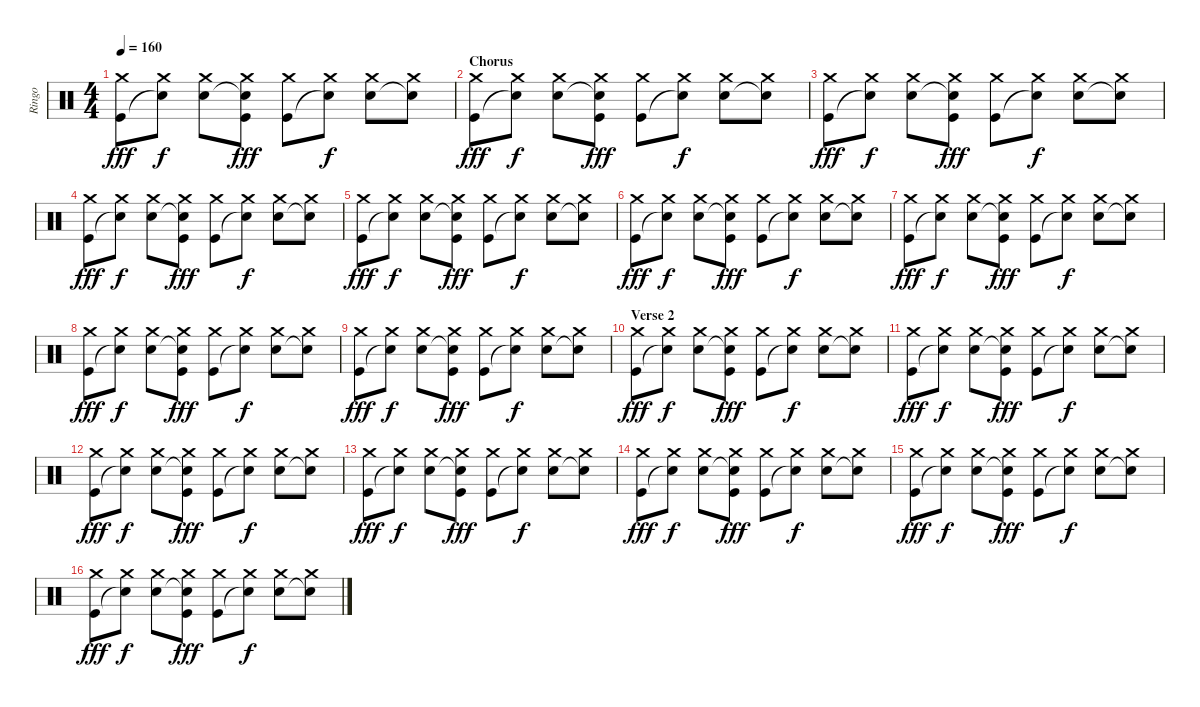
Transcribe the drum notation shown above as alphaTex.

\track ("Ringo" "Ringo") {instrument percussion}
\staff {score}
\articulation defaults
\ts (4 4)
\tempo 160
\clef neutral
\ks c
("Crash medium (hit)" "Kick (hit)").8{dy fff} ("Crash medium (hit)" "Snare (hit)"{t}).8{dy f} ("Crash medium (hit)" "Snare (hit) 2").8 ("Crash medium (hit)" "Snare (hit)"{t} "Kick (hit)").8{dy fff} ("Crash medium (hit)" "Kick (hit)").8 ("Crash medium (hit)" "Snare (hit)"{t}).8{dy f} ("Crash medium (hit)" "Snare (hit) 2").8 ("Crash medium (hit)" "Snare (hit)"{t}).8 |
\section ("" "Chorus ")
("Crash medium (hit)" "Kick (hit)").8{dy fff} ("Crash medium (hit)" "Snare (hit)"{t}).8{dy f} ("Crash medium (hit)" "Snare (hit) 2").8 ("Crash medium (hit)" "Snare (hit)"{t} "Kick (hit)").8{dy fff} ("Crash medium (hit)" "Kick (hit)").8 ("Crash medium (hit)" "Snare (hit)"{t}).8{dy f} ("Crash medium (hit)" "Snare (hit) 2").8 ("Crash medium (hit)" "Snare (hit)"{t}).8 |
("Crash medium (hit)" "Kick (hit)").8{dy fff} ("Crash medium (hit)" "Snare (hit)"{t}).8{dy f} ("Crash medium (hit)" "Snare (hit) 2").8 ("Crash medium (hit)" "Snare (hit)"{t} "Kick (hit)").8{dy fff} ("Crash medium (hit)" "Kick (hit)").8 ("Crash medium (hit)" "Snare (hit)"{t}).8{dy f} ("Crash medium (hit)" "Snare (hit) 2").8 ("Crash medium (hit)" "Snare (hit)"{t}).8 |
("Crash medium (hit)" "Kick (hit)").8{dy fff} ("Crash medium (hit)" "Snare (hit)"{t}).8{dy f} ("Crash medium (hit)" "Snare (hit) 2").8 ("Crash medium (hit)" "Snare (hit)"{t} "Kick (hit)").8{dy fff} ("Crash medium (hit)" "Kick (hit)").8 ("Crash medium (hit)" "Snare (hit)"{t}).8{dy f} ("Crash medium (hit)" "Snare (hit) 2").8 ("Crash medium (hit)" "Snare (hit)"{t}).8 |
("Crash medium (hit)" "Kick (hit)").8{dy fff} ("Crash medium (hit)" "Snare (hit)"{t}).8{dy f} ("Crash medium (hit)" "Snare (hit) 2").8 ("Crash medium (hit)" "Snare (hit)"{t} "Kick (hit)").8{dy fff} ("Crash medium (hit)" "Kick (hit)").8 ("Crash medium (hit)" "Snare (hit)"{t}).8{dy f} ("Crash medium (hit)" "Snare (hit) 2").8 ("Crash medium (hit)" "Snare (hit)"{t}).8 |
("Crash medium (hit)" "Kick (hit)").8{dy fff} ("Crash medium (hit)" "Snare (hit)"{t}).8{dy f} ("Crash medium (hit)" "Snare (hit) 2").8 ("Crash medium (hit)" "Snare (hit)"{t} "Kick (hit)").8{dy fff} ("Crash medium (hit)" "Kick (hit)").8 ("Crash medium (hit)" "Snare (hit)"{t}).8{dy f} ("Crash medium (hit)" "Snare (hit) 2").8 ("Crash medium (hit)" "Snare (hit)"{t}).8 |
("Crash medium (hit)" "Kick (hit)").8{dy fff} ("Crash medium (hit)" "Snare (hit)"{t}).8{dy f} ("Crash medium (hit)" "Snare (hit) 2").8 ("Crash medium (hit)" "Snare (hit)"{t} "Kick (hit)").8{dy fff} ("Crash medium (hit)" "Kick (hit)").8 ("Crash medium (hit)" "Snare (hit)"{t}).8{dy f} ("Crash medium (hit)" "Snare (hit) 2").8 ("Crash medium (hit)" "Snare (hit)"{t}).8 |
("Crash medium (hit)" "Kick (hit)").8{dy fff} ("Crash medium (hit)" "Snare (hit)"{t}).8{dy f} ("Crash medium (hit)" "Snare (hit) 2").8 ("Crash medium (hit)" "Snare (hit)"{t} "Kick (hit)").8{dy fff} ("Crash medium (hit)" "Kick (hit)").8 ("Crash medium (hit)" "Snare (hit)"{t}).8{dy f} ("Crash medium (hit)" "Snare (hit) 2").8 ("Crash medium (hit)" "Snare (hit)"{t}).8 |
("Crash medium (hit)" "Kick (hit)").8{dy fff} ("Crash medium (hit)" "Snare (hit)"{t}).8{dy f} ("Crash medium (hit)" "Snare (hit) 2").8 ("Crash medium (hit)" "Snare (hit)"{t} "Kick (hit)").8{dy fff} ("Crash medium (hit)" "Kick (hit)").8 ("Crash medium (hit)" "Snare (hit)"{t}).8{dy f} ("Crash medium (hit)" "Snare (hit) 2").8 ("Crash medium (hit)" "Snare (hit)"{t}).8 |
\section ("" "Verse 2")
("Crash medium (hit)" "Kick (hit)").8{dy fff} ("Crash medium (hit)" "Snare (hit)"{t}).8{dy f} ("Crash medium (hit)" "Snare (hit) 2").8 ("Crash medium (hit)" "Snare (hit)"{t} "Kick (hit)").8{dy fff} ("Crash medium (hit)" "Kick (hit)").8 ("Crash medium (hit)" "Snare (hit)"{t}).8{dy f} ("Crash medium (hit)" "Snare (hit) 2").8 ("Crash medium (hit)" "Snare (hit)"{t}).8 |
("Crash medium (hit)" "Kick (hit)").8{dy fff} ("Crash medium (hit)" "Snare (hit)"{t}).8{dy f} ("Crash medium (hit)" "Snare (hit) 2").8 ("Crash medium (hit)" "Snare (hit)"{t} "Kick (hit)").8{dy fff} ("Crash medium (hit)" "Kick (hit)").8 ("Crash medium (hit)" "Snare (hit)"{t}).8{dy f} ("Crash medium (hit)" "Snare (hit) 2").8 ("Crash medium (hit)" "Snare (hit)"{t}).8 |
("Crash medium (hit)" "Kick (hit)").8{dy fff} ("Crash medium (hit)" "Snare (hit)"{t}).8{dy f} ("Crash medium (hit)" "Snare (hit) 2").8 ("Crash medium (hit)" "Snare (hit)"{t} "Kick (hit)").8{dy fff} ("Crash medium (hit)" "Kick (hit)").8 ("Crash medium (hit)" "Snare (hit)"{t}).8{dy f} ("Crash medium (hit)" "Snare (hit) 2").8 ("Crash medium (hit)" "Snare (hit)"{t}).8 |
("Crash medium (hit)" "Kick (hit)").8{dy fff} ("Crash medium (hit)" "Snare (hit)"{t}).8{dy f} ("Crash medium (hit)" "Snare (hit) 2").8 ("Crash medium (hit)" "Snare (hit)"{t} "Kick (hit)").8{dy fff} ("Crash medium (hit)" "Kick (hit)").8 ("Crash medium (hit)" "Snare (hit)"{t}).8{dy f} ("Crash medium (hit)" "Snare (hit) 2").8 ("Crash medium (hit)" "Snare (hit)"{t}).8 |
("Crash medium (hit)" "Kick (hit)").8{dy fff} ("Crash medium (hit)" "Snare (hit)"{t}).8{dy f} ("Crash medium (hit)" "Snare (hit) 2").8 ("Crash medium (hit)" "Snare (hit)"{t} "Kick (hit)").8{dy fff} ("Crash medium (hit)" "Kick (hit)").8 ("Crash medium (hit)" "Snare (hit)"{t}).8{dy f} ("Crash medium (hit)" "Snare (hit) 2").8 ("Crash medium (hit)" "Snare (hit)"{t}).8 |
("Crash medium (hit)" "Kick (hit)").8{dy fff} ("Crash medium (hit)" "Snare (hit)"{t}).8{dy f} ("Crash medium (hit)" "Snare (hit) 2").8 ("Crash medium (hit)" "Snare (hit)"{t} "Kick (hit)").8{dy fff} ("Crash medium (hit)" "Kick (hit)").8 ("Crash medium (hit)" "Snare (hit)"{t}).8{dy f} ("Crash medium (hit)" "Snare (hit) 2").8 ("Crash medium (hit)" "Snare (hit)"{t}).8 |
("Crash medium (hit)" "Kick (hit)").8{dy fff} ("Crash medium (hit)" "Snare (hit)"{t}).8{dy f} ("Crash medium (hit)" "Snare (hit) 2").8 ("Crash medium (hit)" "Snare (hit)"{t} "Kick (hit)").8{dy fff} ("Crash medium (hit)" "Kick (hit)").8 ("Crash medium (hit)" "Snare (hit)"{t}).8{dy f} ("Crash medium (hit)" "Snare (hit) 2").8 ("Crash medium (hit)" "Snare (hit)"{t}).8
